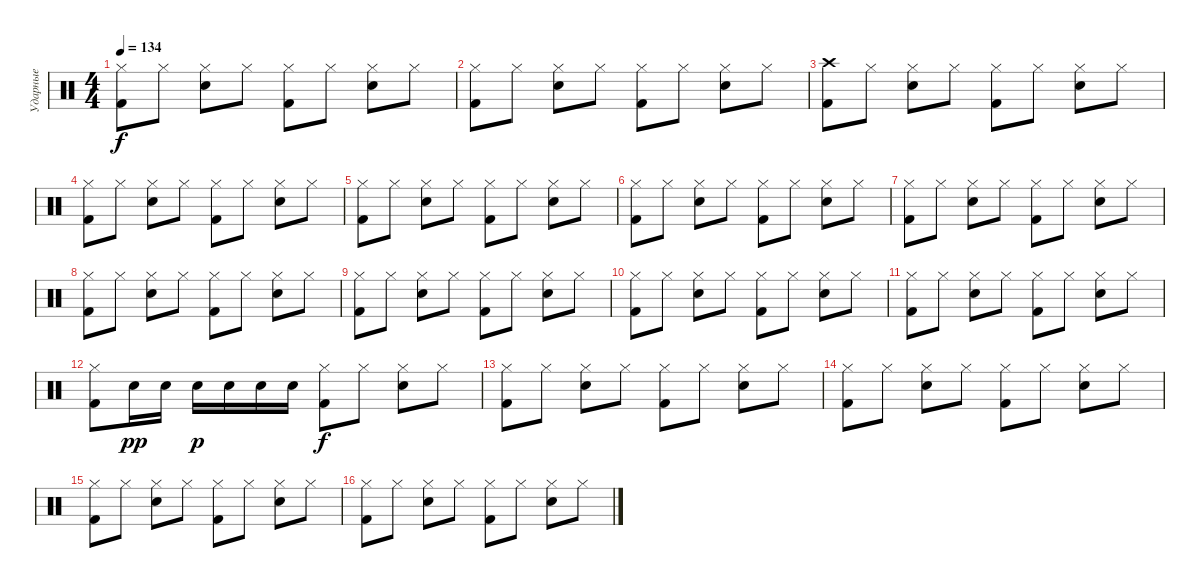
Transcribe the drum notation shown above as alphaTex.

\track ("Ударные" "Ударные") {instrument percussion}
\staff {score}
\articulation defaults
\ts (4 4)
\tempo 134
\clef neutral
\ks c
("Hi-Hat (closed)" "Kick (hit) 2").8{dy f} "Hi-Hat (closed)".8 ("Hi-Hat (closed)" "Snare (hit) 2").8 "Hi-Hat (closed)".8 ("Hi-Hat (closed)" "Kick (hit) 2").8 "Hi-Hat (closed)".8 ("Hi-Hat (closed)" "Snare (hit) 2").8 "Hi-Hat (closed)".8 |
("Hi-Hat (closed)" "Kick (hit) 2").8 "Hi-Hat (closed)".8 ("Hi-Hat (closed)" "Snare (hit) 2").8 "Hi-Hat (closed)".8 ("Hi-Hat (closed)" "Kick (hit) 2").8 "Hi-Hat (closed)".8 ("Hi-Hat (closed)" "Snare (hit) 2").8 "Hi-Hat (closed)".8 |
("Crash high (hit)" "Kick (hit) 2").8 "Hi-Hat (closed)".8 ("Hi-Hat (closed)" "Snare (hit) 2").8 "Hi-Hat (closed)".8 ("Hi-Hat (closed)" "Kick (hit) 2").8 "Hi-Hat (closed)".8 ("Hi-Hat (closed)" "Snare (hit) 2").8 "Hi-Hat (closed)".8 |
("Hi-Hat (closed)" "Kick (hit) 2").8 "Hi-Hat (closed)".8 ("Hi-Hat (closed)" "Snare (hit) 2").8 "Hi-Hat (closed)".8 ("Hi-Hat (closed)" "Kick (hit) 2").8 "Hi-Hat (closed)".8 ("Hi-Hat (closed)" "Snare (hit) 2").8 "Hi-Hat (closed)".8 |
("Hi-Hat (closed)" "Kick (hit) 2").8 "Hi-Hat (closed)".8 ("Hi-Hat (closed)" "Snare (hit) 2").8 "Hi-Hat (closed)".8 ("Hi-Hat (closed)" "Kick (hit) 2").8 "Hi-Hat (closed)".8 ("Hi-Hat (closed)" "Snare (hit) 2").8 "Hi-Hat (closed)".8 |
("Hi-Hat (closed)" "Kick (hit) 2").8 "Hi-Hat (closed)".8 ("Hi-Hat (closed)" "Snare (hit) 2").8 "Hi-Hat (closed)".8 ("Hi-Hat (closed)" "Kick (hit) 2").8 "Hi-Hat (closed)".8 ("Hi-Hat (closed)" "Snare (hit) 2").8 "Hi-Hat (closed)".8 |
("Hi-Hat (closed)" "Kick (hit) 2").8 "Hi-Hat (closed)".8 ("Hi-Hat (closed)" "Snare (hit) 2").8 "Hi-Hat (closed)".8 ("Hi-Hat (closed)" "Kick (hit) 2").8 "Hi-Hat (closed)".8 ("Hi-Hat (closed)" "Snare (hit) 2").8 "Hi-Hat (closed)".8 |
("Hi-Hat (closed)" "Kick (hit) 2").8 "Hi-Hat (closed)".8 ("Hi-Hat (closed)" "Snare (hit) 2").8 "Hi-Hat (closed)".8 ("Hi-Hat (closed)" "Kick (hit) 2").8 "Hi-Hat (closed)".8 ("Hi-Hat (closed)" "Snare (hit) 2").8 "Hi-Hat (closed)".8 |
("Hi-Hat (closed)" "Kick (hit) 2").8 "Hi-Hat (closed)".8 ("Hi-Hat (closed)" "Snare (hit) 2").8 "Hi-Hat (closed)".8 ("Hi-Hat (closed)" "Kick (hit) 2").8 "Hi-Hat (closed)".8 ("Hi-Hat (closed)" "Snare (hit) 2").8 "Hi-Hat (closed)".8 |
("Hi-Hat (closed)" "Kick (hit) 2").8 "Hi-Hat (closed)".8 ("Hi-Hat (closed)" "Snare (hit) 2").8 "Hi-Hat (closed)".8 ("Hi-Hat (closed)" "Kick (hit) 2").8 "Hi-Hat (closed)".8 ("Hi-Hat (closed)" "Snare (hit) 2").8 "Hi-Hat (closed)".8 |
("Hi-Hat (closed)" "Kick (hit) 2").8 "Hi-Hat (closed)".8 ("Hi-Hat (closed)" "Snare (hit) 2").8 "Hi-Hat (closed)".8 ("Hi-Hat (closed)" "Kick (hit) 2").8 "Hi-Hat (closed)".8 ("Hi-Hat (closed)" "Snare (hit) 2").8 "Hi-Hat (closed)".8 |
("Hi-Hat (closed)" "Kick (hit) 2").8 "Snare (hit) 2".16{dy pp} "Snare (hit) 2".16 "Snare (hit) 2".16{dy p} "Snare (hit) 2".16 "Snare (hit) 2".16 "Snare (hit) 2".16 ("Hi-Hat (closed)" "Kick (hit) 2").8{dy f} "Hi-Hat (closed)".8 ("Hi-Hat (closed)" "Snare (hit) 2").8 "Hi-Hat (closed)".8 |
("Hi-Hat (closed)" "Kick (hit) 2").8 "Hi-Hat (closed)".8 ("Hi-Hat (closed)" "Snare (hit) 2").8 "Hi-Hat (closed)".8 ("Hi-Hat (closed)" "Kick (hit) 2").8 "Hi-Hat (closed)".8 ("Hi-Hat (closed)" "Snare (hit) 2").8 "Hi-Hat (closed)".8 |
("Hi-Hat (closed)" "Kick (hit) 2").8 "Hi-Hat (closed)".8 ("Hi-Hat (closed)" "Snare (hit) 2").8 "Hi-Hat (closed)".8 ("Hi-Hat (closed)" "Kick (hit) 2").8 "Hi-Hat (closed)".8 ("Hi-Hat (closed)" "Snare (hit) 2").8 "Hi-Hat (closed)".8 |
("Hi-Hat (closed)" "Kick (hit) 2").8 "Hi-Hat (closed)".8 ("Hi-Hat (closed)" "Snare (hit) 2").8 "Hi-Hat (closed)".8 ("Hi-Hat (closed)" "Kick (hit) 2").8 "Hi-Hat (closed)".8 ("Hi-Hat (closed)" "Snare (hit) 2").8 "Hi-Hat (closed)".8 |
("Hi-Hat (closed)" "Kick (hit) 2").8 "Hi-Hat (closed)".8 ("Hi-Hat (closed)" "Snare (hit) 2").8 "Hi-Hat (closed)".8 ("Hi-Hat (closed)" "Kick (hit) 2").8 "Hi-Hat (closed)".8 ("Hi-Hat (closed)" "Snare (hit) 2").8 "Hi-Hat (closed)".8
